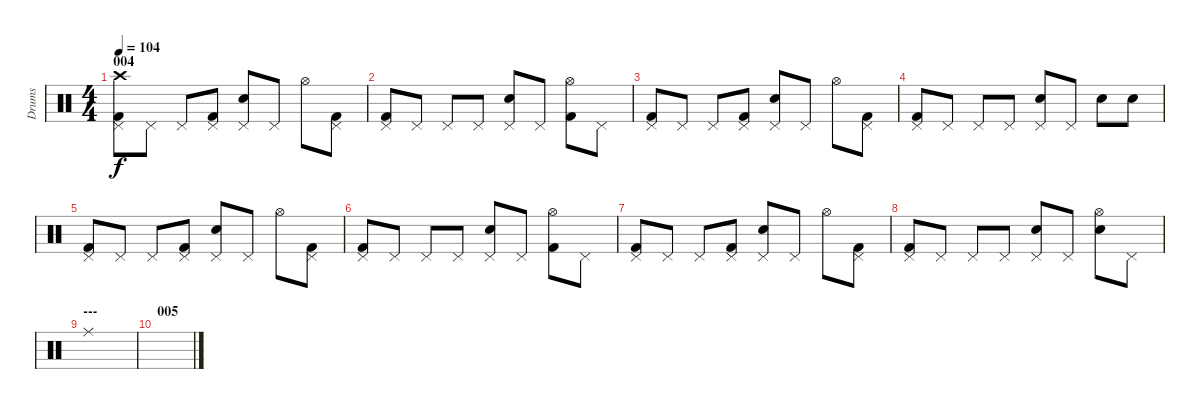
\track ("Drums" "Drums") {instrument percussion}
\staff {score}
\articulation defaults
\ts (4 4)
\section ("" "004")
\tempo 104
\clef neutral
\ks c
("Pedal Hi-Hat (hit)" "Kick (hit) 2" "Crash high (hit)").8{dy f} "Pedal Hi-Hat (hit)".8 "Pedal Hi-Hat (hit)".8 ("Pedal Hi-Hat (hit)" "Kick (hit) 2").8 ("Pedal Hi-Hat (hit)" "Electric Snare (hit)").8 "Pedal Hi-Hat (hit)".8 "Hi-Hat (open)".8 ("Pedal Hi-Hat (hit)" "Kick (hit) 2").8 |
("Pedal Hi-Hat (hit)" "Kick (hit) 2").8 "Pedal Hi-Hat (hit)".8 "Pedal Hi-Hat (hit)".8 "Pedal Hi-Hat (hit)".8 ("Pedal Hi-Hat (hit)" "Electric Snare (hit)").8 "Pedal Hi-Hat (hit)".8 ("Hi-Hat (open)" "Kick (hit) 2").8 "Pedal Hi-Hat (hit)".8 |
("Pedal Hi-Hat (hit)" "Kick (hit) 2").8 "Pedal Hi-Hat (hit)".8 "Pedal Hi-Hat (hit)".8 ("Pedal Hi-Hat (hit)" "Kick (hit) 2").8 ("Pedal Hi-Hat (hit)" "Electric Snare (hit)").8 "Pedal Hi-Hat (hit)".8 "Hi-Hat (open)".8 ("Pedal Hi-Hat (hit)" "Kick (hit) 2").8 |
("Pedal Hi-Hat (hit)" "Kick (hit) 2").8 "Pedal Hi-Hat (hit)".8 "Pedal Hi-Hat (hit)".8 "Pedal Hi-Hat (hit)".8 ("Pedal Hi-Hat (hit)" "Electric Snare (hit)").8 "Pedal Hi-Hat (hit)".8 "Electric Snare (hit)".8 "Electric Snare (hit)".8 |
("Pedal Hi-Hat (hit)" "Kick (hit) 2").8 "Pedal Hi-Hat (hit)".8 "Pedal Hi-Hat (hit)".8 ("Pedal Hi-Hat (hit)" "Kick (hit) 2").8 ("Pedal Hi-Hat (hit)" "Electric Snare (hit)").8 "Pedal Hi-Hat (hit)".8 "Hi-Hat (open)".8 ("Pedal Hi-Hat (hit)" "Kick (hit) 2").8 |
("Pedal Hi-Hat (hit)" "Kick (hit) 2").8 "Pedal Hi-Hat (hit)".8 "Pedal Hi-Hat (hit)".8 "Pedal Hi-Hat (hit)".8 ("Pedal Hi-Hat (hit)" "Electric Snare (hit)").8 "Pedal Hi-Hat (hit)".8 ("Hi-Hat (open)" "Kick (hit) 2").8 "Pedal Hi-Hat (hit)".8 |
("Pedal Hi-Hat (hit)" "Kick (hit) 2").8 "Pedal Hi-Hat (hit)".8 "Pedal Hi-Hat (hit)".8 ("Pedal Hi-Hat (hit)" "Kick (hit) 2").8 ("Pedal Hi-Hat (hit)" "Electric Snare (hit)").8 "Pedal Hi-Hat (hit)".8 "Hi-Hat (open)".8 ("Pedal Hi-Hat (hit)" "Kick (hit) 2").8 |
("Pedal Hi-Hat (hit)" "Kick (hit) 2").8 "Pedal Hi-Hat (hit)".8 "Pedal Hi-Hat (hit)".8 "Pedal Hi-Hat (hit)".8 ("Pedal Hi-Hat (hit)" "Electric Snare (hit)").8 "Pedal Hi-Hat (hit)".8 ("Hi-Hat (open)" "Electric Snare (hit)").8 "Pedal Hi-Hat (hit)".8 |
\section ("" "---")
"Ride (middle)".1 |
\section ("" "005")
